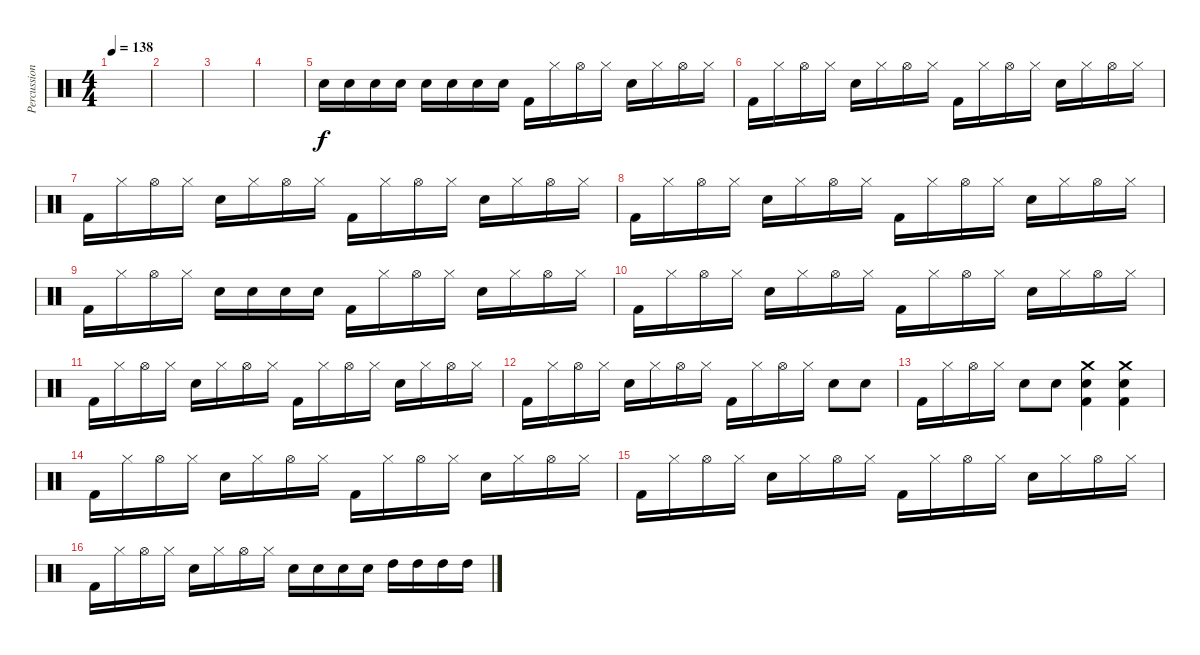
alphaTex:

\track ("Percussion" "Percussion") {instrument percussion}
\staff {score}
\articulation defaults
\ts (4 4)
\tempo 138
\clef neutral
\ks c
|
|
|
|
"Electric Snare (hit)".16 "Electric Snare (hit)".16 "Electric Snare (hit)".16 "Electric Snare (hit)".16 "Electric Snare (hit)".16 "Electric Snare (hit)".16 "Electric Snare (hit)".16 "Electric Snare (hit)".16 "Kick (hit) 2".16 "Hi-Hat (closed)".16 "Hi-Hat (open)".16 "Hi-Hat (closed)".16 "Electric Snare (hit)".16 "Hi-Hat (closed)".16 "Hi-Hat (open)".16 "Hi-Hat (closed)".16 |
"Kick (hit) 2".16 "Hi-Hat (closed)".16 "Hi-Hat (open)".16 "Hi-Hat (closed)".16 "Electric Snare (hit)".16 "Hi-Hat (closed)".16 "Hi-Hat (open)".16 "Hi-Hat (closed)".16 "Kick (hit) 2".16 "Hi-Hat (closed)".16 "Hi-Hat (open)".16 "Hi-Hat (closed)".16 "Electric Snare (hit)".16 "Hi-Hat (closed)".16 "Hi-Hat (open)".16 "Hi-Hat (closed)".16 |
"Kick (hit) 2".16 "Hi-Hat (closed)".16 "Hi-Hat (open)".16 "Hi-Hat (closed)".16 "Electric Snare (hit)".16 "Hi-Hat (closed)".16 "Hi-Hat (open)".16 "Hi-Hat (closed)".16 "Kick (hit) 2".16 "Hi-Hat (closed)".16 "Hi-Hat (open)".16 "Hi-Hat (closed)".16 "Electric Snare (hit)".16 "Hi-Hat (closed)".16 "Hi-Hat (open)".16 "Hi-Hat (closed)".16 |
"Kick (hit) 2".16 "Hi-Hat (closed)".16 "Hi-Hat (open)".16 "Hi-Hat (closed)".16 "Electric Snare (hit)".16 "Hi-Hat (closed)".16 "Hi-Hat (open)".16 "Hi-Hat (closed)".16 "Kick (hit) 2".16 "Hi-Hat (closed)".16 "Hi-Hat (open)".16 "Hi-Hat (closed)".16 "Electric Snare (hit)".16 "Hi-Hat (closed)".16 "Hi-Hat (open)".16 "Hi-Hat (closed)".16 |
"Kick (hit) 2".16 "Hi-Hat (closed)".16 "Hi-Hat (open)".16 "Hi-Hat (closed)".16 "Electric Snare (hit)".16 "Electric Snare (hit)".16 "Electric Snare (hit)".16 "Electric Snare (hit)".16 "Kick (hit) 2".16 "Hi-Hat (closed)".16 "Hi-Hat (open)".16 "Hi-Hat (closed)".16 "Electric Snare (hit)".16 "Hi-Hat (closed)".16 "Hi-Hat (open)".16 "Hi-Hat (closed)".16 |
"Kick (hit) 2".16 "Hi-Hat (closed)".16 "Hi-Hat (open)".16 "Hi-Hat (closed)".16 "Electric Snare (hit)".16 "Hi-Hat (closed)".16 "Hi-Hat (open)".16 "Hi-Hat (closed)".16 "Kick (hit) 2".16 "Hi-Hat (closed)".16 "Hi-Hat (open)".16 "Hi-Hat (closed)".16 "Electric Snare (hit)".16 "Hi-Hat (closed)".16 "Hi-Hat (open)".16 "Hi-Hat (closed)".16 |
"Kick (hit) 2".16 "Hi-Hat (closed)".16 "Hi-Hat (open)".16 "Hi-Hat (closed)".16 "Electric Snare (hit)".16 "Hi-Hat (closed)".16 "Hi-Hat (open)".16 "Hi-Hat (closed)".16 "Kick (hit) 2".16 "Hi-Hat (closed)".16 "Hi-Hat (open)".16 "Hi-Hat (closed)".16 "Electric Snare (hit)".16 "Hi-Hat (closed)".16 "Hi-Hat (open)".16 "Hi-Hat (closed)".16 |
"Kick (hit) 2".16 "Hi-Hat (closed)".16 "Hi-Hat (open)".16 "Hi-Hat (closed)".16 "Electric Snare (hit)".16 "Hi-Hat (closed)".16 "Hi-Hat (open)".16 "Hi-Hat (closed)".16 "Kick (hit) 2".16 "Hi-Hat (closed)".16 "Hi-Hat (open)".16 "Hi-Hat (closed)".16 "Electric Snare (hit)".8 "Electric Snare (hit)".8 |
"Kick (hit) 2".16 "Hi-Hat (closed)".16 "Hi-Hat (open)".16 "Hi-Hat (closed)".16 "Electric Snare (hit)".8 "Electric Snare (hit)".8 ("Kick (hit) 2" "Electric Snare (hit)" "Crash medium (hit)").4 ("Kick (hit) 2" "Electric Snare (hit)" "Crash medium (hit)").4 |
"Kick (hit) 2".16 "Hi-Hat (closed)".16 "Hi-Hat (open)".16 "Hi-Hat (closed)".16 "Electric Snare (hit)".16 "Hi-Hat (closed)".16 "Hi-Hat (open)".16 "Hi-Hat (closed)".16 "Kick (hit) 2".16 "Hi-Hat (closed)".16 "Hi-Hat (open)".16 "Hi-Hat (closed)".16 "Electric Snare (hit)".16 "Hi-Hat (closed)".16 "Hi-Hat (open)".16 "Hi-Hat (closed)".16 |
"Kick (hit) 2".16 "Hi-Hat (closed)".16 "Hi-Hat (open)".16 "Hi-Hat (closed)".16 "Electric Snare (hit)".16 "Hi-Hat (closed)".16 "Hi-Hat (open)".16 "Hi-Hat (closed)".16 "Kick (hit) 2".16 "Hi-Hat (closed)".16 "Hi-Hat (open)".16 "Hi-Hat (closed)".16 "Electric Snare (hit)".16 "Hi-Hat (closed)".16 "Hi-Hat (open)".16 "Hi-Hat (closed)".16 |
"Kick (hit) 2".16 "Hi-Hat (closed)".16 "Hi-Hat (open)".16 "Hi-Hat (closed)".16 "Electric Snare (hit)".16 "Hi-Hat (closed)".16 "Hi-Hat (open)".16 "Hi-Hat (closed)".16 "Electric Snare (hit)".16 "Electric Snare (hit)".16 "Electric Snare (hit)".16 "Electric Snare (hit)".16 "High Tom (hit)".16 "High Tom (hit)".16 "High Tom (hit)".16 "High Tom (hit)".16
